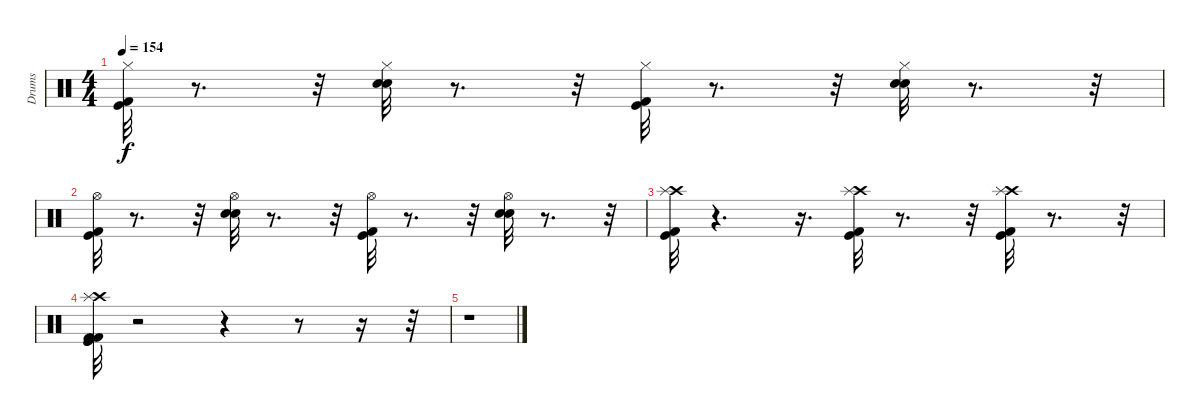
\track ("Drums" "Drums") {instrument percussion}
\staff {score}
\articulation defaults
\ts (4 4)
\tempo 154
\clef neutral
\ks c
("Hi-Hat (closed)" "Kick (hit) 2" "Kick (hit)").32{dy f} r.8{d} r.32 ("Hi-Hat (closed)" "Snare (hit) 2" "Electric Snare (hit)").32 r.8{d} r.32 ("Hi-Hat (closed)" "Kick (hit) 2" "Kick (hit)").32 r.8{d} r.32 ("Hi-Hat (closed)" "Snare (hit) 2" "Electric Snare (hit)").32 r.8{d} r.32 |
("Hi-Hat (open)" "Kick (hit) 2" "Kick (hit)").32 r.8{d} r.32 ("Hi-Hat (open)" "Snare (hit) 2" "Electric Snare (hit)").32 r.8{d} r.32 ("Hi-Hat (open)" "Kick (hit) 2" "Kick (hit)").32 r.8{d} r.32 ("Hi-Hat (open)" "Snare (hit) 2" "Electric Snare (hit)").32 r.8{d} r.32 |
("Crash high (hit)" "Splash (hit)" "Kick (hit) 2" "Kick (hit)").32 r.4{d} r.16{d} ("Crash high (hit)" "Splash (hit)" "Kick (hit) 2" "Kick (hit)").32 r.8{d} r.32 ("Crash high (hit)" "Kick (hit)" "Kick (hit) 2" "Splash (hit)").32 r.8{d} r.32 |
("Crash high (hit)" "Splash (hit)" "Kick (hit)" "Kick (hit) 2" "Kick (hit)" "Kick (hit) 2").32 r.2 r.4 r.8 r.16 r.32 |
r.1
